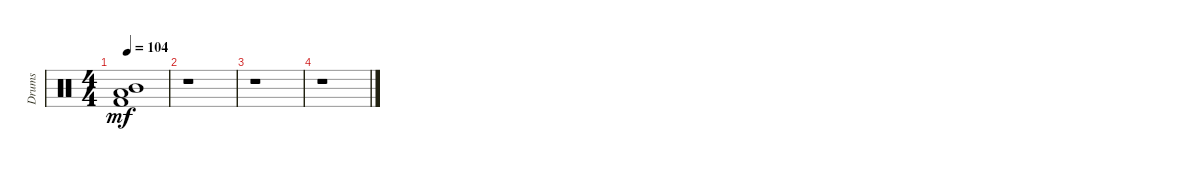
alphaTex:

\track ("Drums" "Drums") {instrument percussion}
\staff {score}
\articulation defaults
\ts (4 4)
\tempo 104
\clef neutral
\ks c
("Mid Tom (hit)" "Low Tom (hit)" "Kick (hit) 2").1{dy mf} |
r.1 |
r.1 |
r.1
